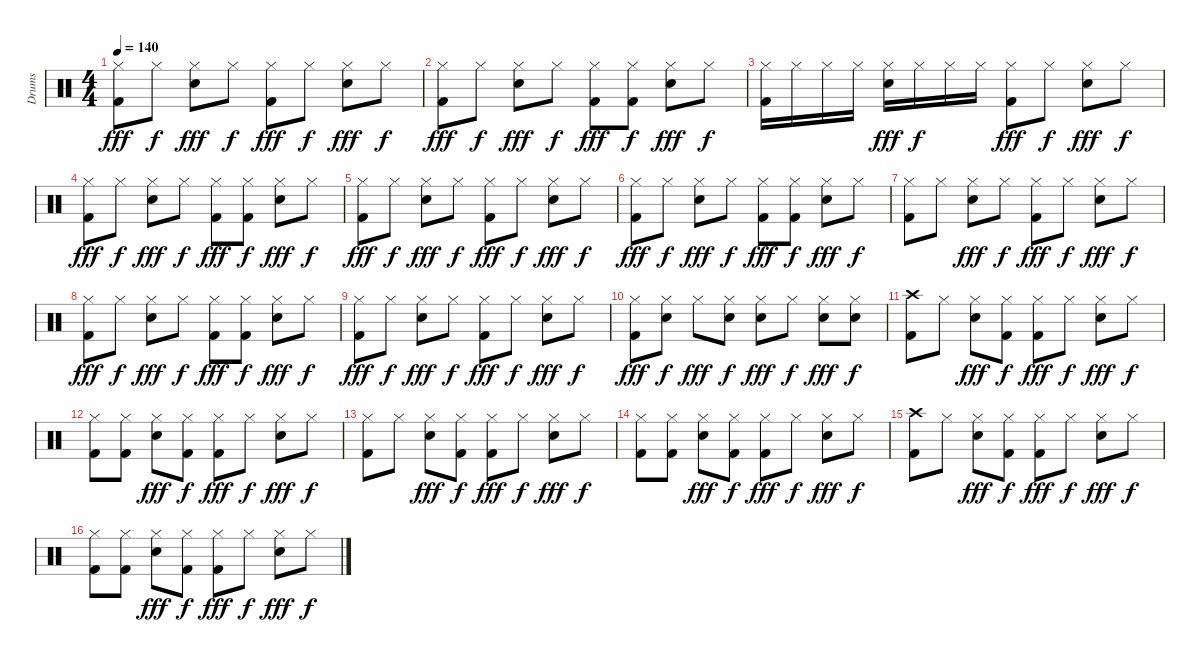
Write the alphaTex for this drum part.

\track ("Drums" "Drums") {instrument percussion}
\staff {score}
\articulation defaults
\ts (4 4)
\tempo 140
\clef neutral
\ks c
("Hi-Hat (closed)" "Kick (hit) 2").8{dy fff} "Hi-Hat (closed)".8{dy f} ("Hi-Hat (closed)" "Snare (hit) 2").8{dy fff} "Hi-Hat (closed)".8{dy f} ("Hi-Hat (closed)" "Kick (hit) 2").8{dy fff} "Hi-Hat (closed)".8{dy f} ("Hi-Hat (closed)" "Snare (hit) 2").8{dy fff} "Hi-Hat (closed)".8{dy f} |
("Hi-Hat (closed)" "Kick (hit) 2").8{dy fff} "Hi-Hat (closed)".8{dy f} ("Hi-Hat (closed)" "Snare (hit) 2").8{dy fff} "Hi-Hat (closed)".8{dy f} ("Hi-Hat (closed)" "Kick (hit) 2").8{dy fff} ("Hi-Hat (closed)" "Kick (hit) 2").8{dy f} ("Hi-Hat (closed)" "Snare (hit) 2").8{dy fff} "Hi-Hat (closed)".8{dy f} |
("Hi-Hat (closed)" "Kick (hit) 2").16 "Hi-Hat (closed)".16 "Hi-Hat (closed)".16 "Hi-Hat (closed)".16 ("Hi-Hat (closed)" "Snare (hit) 2").16{dy fff} "Hi-Hat (closed)".16{dy f} "Hi-Hat (closed)".16 "Hi-Hat (closed)".16 ("Hi-Hat (closed)" "Kick (hit) 2").8{dy fff} "Hi-Hat (closed)".8{dy f} ("Hi-Hat (closed)" "Snare (hit) 2").8{dy fff} "Hi-Hat (closed)".8{dy f} |
("Hi-Hat (closed)" "Kick (hit) 2").8{dy fff} "Hi-Hat (closed)".8{dy f} ("Hi-Hat (closed)" "Snare (hit) 2").8{dy fff} "Hi-Hat (closed)".8{dy f} ("Hi-Hat (closed)" "Kick (hit) 2").8{dy fff} ("Hi-Hat (closed)" "Kick (hit) 2").8{dy f} ("Hi-Hat (closed)" "Snare (hit) 2").8{dy fff} "Hi-Hat (closed)".8{dy f} |
("Hi-Hat (closed)" "Kick (hit) 2").8{dy fff} "Hi-Hat (closed)".8{dy f} ("Hi-Hat (closed)" "Snare (hit) 2").8{dy fff} "Hi-Hat (closed)".8{dy f} ("Hi-Hat (closed)" "Kick (hit) 2").8{dy fff} "Hi-Hat (closed)".8{dy f} ("Hi-Hat (closed)" "Snare (hit) 2").8{dy fff} "Hi-Hat (closed)".8{dy f} |
("Hi-Hat (closed)" "Kick (hit) 2").8{dy fff} "Hi-Hat (closed)".8{dy f} ("Hi-Hat (closed)" "Snare (hit) 2").8{dy fff} "Hi-Hat (closed)".8{dy f} ("Hi-Hat (closed)" "Kick (hit) 2").8{dy fff} ("Hi-Hat (closed)" "Kick (hit) 2").8{dy f} ("Hi-Hat (closed)" "Snare (hit) 2").8{dy fff} "Hi-Hat (closed)".8{dy f} |
("Hi-Hat (closed)" "Kick (hit) 2").8 "Hi-Hat (closed)".8 ("Hi-Hat (closed)" "Snare (hit) 2").8{dy fff} "Hi-Hat (closed)".8{dy f} ("Hi-Hat (closed)" "Kick (hit) 2").8{dy fff} "Hi-Hat (closed)".8{dy f} ("Hi-Hat (closed)" "Snare (hit) 2").8{dy fff} "Hi-Hat (closed)".8{dy f} |
("Hi-Hat (closed)" "Kick (hit) 2").8{dy fff} "Hi-Hat (closed)".8{dy f} ("Hi-Hat (closed)" "Snare (hit) 2").8{dy fff} "Hi-Hat (closed)".8{dy f} ("Hi-Hat (closed)" "Kick (hit) 2").8{dy fff} ("Hi-Hat (closed)" "Kick (hit) 2").8{dy f} ("Hi-Hat (closed)" "Snare (hit) 2").8{dy fff} "Hi-Hat (closed)".8{dy f} |
("Hi-Hat (closed)" "Kick (hit) 2").8{dy fff} "Hi-Hat (closed)".8{dy f} ("Hi-Hat (closed)" "Snare (hit) 2").8{dy fff} "Hi-Hat (closed)".8{dy f} ("Hi-Hat (closed)" "Kick (hit) 2").8{dy fff} "Hi-Hat (closed)".8{dy f} ("Hi-Hat (closed)" "Snare (hit) 2").8{dy fff} "Hi-Hat (closed)".8{dy f} |
("Hi-Hat (closed)" "Kick (hit) 2").8{dy fff} ("Hi-Hat (closed)" "Snare (hit) 2").8{dy f} "Hi-Hat (closed)".8{dy fff} ("Hi-Hat (closed)" "Snare (hit) 2").8{dy f} ("Hi-Hat (closed)" "Snare (hit) 2").8{dy fff} "Hi-Hat (closed)".8{dy f} ("Hi-Hat (closed)" "Snare (hit) 2").8{dy fff} ("Hi-Hat (closed)" "Snare (hit) 2").8{dy f} |
("Crash high (hit)" "Kick (hit) 2").8 "Hi-Hat (closed)".8 ("Hi-Hat (closed)" "Snare (hit) 2").8{dy fff} ("Hi-Hat (closed)" "Kick (hit) 2").8{dy f} ("Hi-Hat (closed)" "Kick (hit) 2").8{dy fff} "Hi-Hat (closed)".8{dy f} ("Hi-Hat (closed)" "Snare (hit) 2").8{dy fff} "Hi-Hat (closed)".8{dy f} |
("Hi-Hat (closed)" "Kick (hit) 2").8 ("Hi-Hat (closed)" "Kick (hit) 2").8 ("Hi-Hat (closed)" "Snare (hit) 2").8{dy fff} ("Hi-Hat (closed)" "Kick (hit) 2").8{dy f} ("Hi-Hat (closed)" "Kick (hit) 2").8{dy fff} "Hi-Hat (closed)".8{dy f} ("Hi-Hat (closed)" "Snare (hit) 2").8{dy fff} "Hi-Hat (closed)".8{dy f} |
("Hi-Hat (closed)" "Kick (hit) 2").8 "Hi-Hat (closed)".8 ("Hi-Hat (closed)" "Snare (hit) 2").8{dy fff} ("Hi-Hat (closed)" "Kick (hit) 2").8{dy f} ("Hi-Hat (closed)" "Kick (hit) 2").8{dy fff} "Hi-Hat (closed)".8{dy f} ("Hi-Hat (closed)" "Snare (hit) 2").8{dy fff} "Hi-Hat (closed)".8{dy f} |
("Hi-Hat (closed)" "Kick (hit) 2").8 ("Hi-Hat (closed)" "Kick (hit) 2").8 ("Hi-Hat (closed)" "Snare (hit) 2").8{dy fff} ("Hi-Hat (closed)" "Kick (hit) 2").8{dy f} ("Hi-Hat (closed)" "Kick (hit) 2").8{dy fff} "Hi-Hat (closed)".8{dy f} ("Hi-Hat (closed)" "Snare (hit) 2").8{dy fff} "Hi-Hat (closed)".8{dy f} |
("Crash high (hit)" "Kick (hit) 2").8 "Hi-Hat (closed)".8 ("Hi-Hat (closed)" "Snare (hit) 2").8{dy fff} ("Hi-Hat (closed)" "Kick (hit) 2").8{dy f} ("Hi-Hat (closed)" "Kick (hit) 2").8{dy fff} "Hi-Hat (closed)".8{dy f} ("Hi-Hat (closed)" "Snare (hit) 2").8{dy fff} "Hi-Hat (closed)".8{dy f} |
("Hi-Hat (closed)" "Kick (hit) 2").8 ("Hi-Hat (closed)" "Kick (hit) 2").8 ("Hi-Hat (closed)" "Snare (hit) 2").8{dy fff} ("Hi-Hat (closed)" "Kick (hit) 2").8{dy f} ("Hi-Hat (closed)" "Kick (hit) 2").8{dy fff} "Hi-Hat (closed)".8{dy f} ("Hi-Hat (closed)" "Snare (hit) 2").8{dy fff} "Hi-Hat (closed)".8{dy f}
